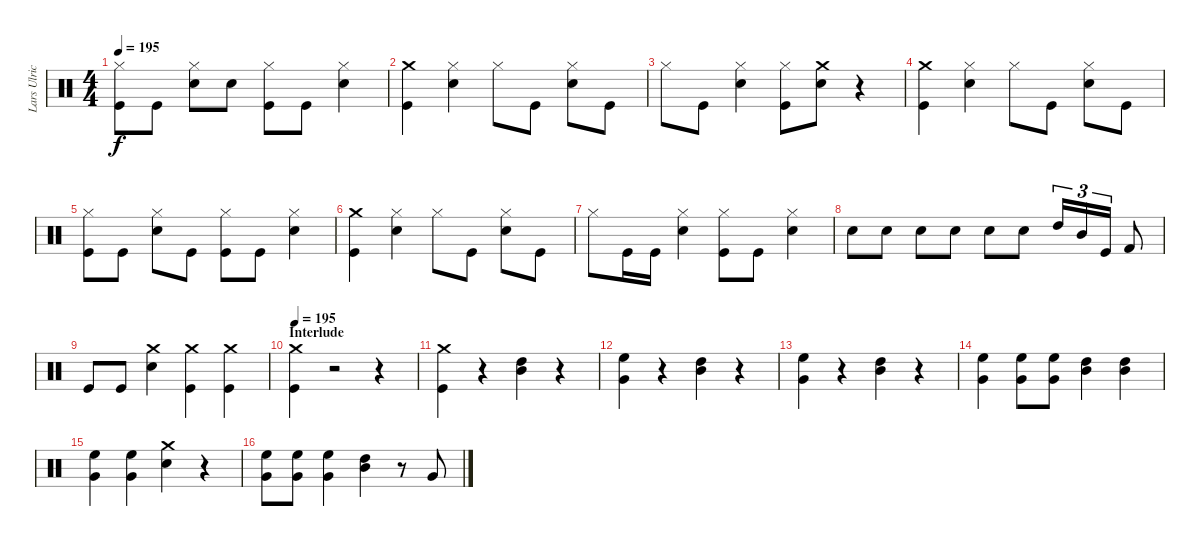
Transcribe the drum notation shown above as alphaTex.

\track ("Lars Ulrich (Drums)" "Lars Ulric") {instrument percussion}
\staff {score}
\articulation defaults
\ts (4 4)
\tempo 195
\clef neutral
\ks c
("Hi-Hat (closed)" "Kick (hit)").8{dy f} "Kick (hit)".8 ("Snare (hit) 2" "Hi-Hat (closed)").8 "Snare (hit) 2".8 ("Hi-Hat (closed)" "Kick (hit)").8 "Kick (hit)".8 ("Snare (hit) 2" "Hi-Hat (closed)").4 |
("Kick (hit)" "Crash medium (hit)").4 ("Hi-Hat (closed)" "Snare (hit) 2").4 "Hi-Hat (closed)".8 "Kick (hit)".8 ("Snare (hit) 2" "Hi-Hat (closed)").8 "Kick (hit)".8 |
"Hi-Hat (closed)".8 "Kick (hit)".8 ("Snare (hit) 2" "Hi-Hat (closed)").4 ("Kick (hit)" "Hi-Hat (closed)").8 ("Snare (hit) 2" "Crash medium (hit)").8 r.4 |
("Kick (hit)" "Crash medium (hit)").4 ("Hi-Hat (closed)" "Snare (hit) 2").4 "Hi-Hat (closed)".8 "Kick (hit)".8 ("Snare (hit) 2" "Hi-Hat (closed)").8 "Kick (hit)".8 |
("Kick (hit)" "Hi-Hat (closed)").8 "Kick (hit)".8 ("Snare (hit) 2" "Hi-Hat (closed)").8 "Kick (hit)".8 ("Kick (hit)" "Hi-Hat (closed)").8 "Kick (hit)".8 ("Snare (hit) 2" "Hi-Hat (closed)").4 |
("Kick (hit)" "Crash medium (hit)").4 ("Hi-Hat (closed)" "Snare (hit) 2").4 "Hi-Hat (closed)".8 "Kick (hit)".8 ("Snare (hit) 2" "Hi-Hat (closed)").8 "Kick (hit)".8 |
"Hi-Hat (closed)".8 "Kick (hit)".16 "Kick (hit)".16 ("Snare (hit) 2" "Hi-Hat (closed)").4 ("Kick (hit)" "Hi-Hat (closed)").8 "Kick (hit)".8 ("Snare (hit) 2" "Hi-Hat (closed)").4 |
"Snare (hit) 2".8 "Snare (hit) 2".8 "Snare (hit) 2".8 "Snare (hit) 2".8 "Snare (hit) 2".8 "Snare (hit) 2".8 "High Tom (hit)".16{tu (3 2)} "Mid Tom (hit)".16{tu (3 2)} "Kick (hit)".16{tu (3 2)} "Kick (hit) 2".8 |
"Kick (hit)".8 "Kick (hit)".8 ("Snare (hit) 2" "Crash medium (hit)").4 ("Kick (hit)" "Crash medium (hit)").4 ("Kick (hit)" "Crash medium (hit)").4 |
\section ("" "Interlude")
\tempo 195
("Crash medium (hit)" "Kick (hit)").4 r.2 r.4 |
("Kick (hit)" "Crash medium (hit)").4 r.4 ("High Tom (hit)" "Mid Tom (hit)").4 r.4 |
("Very Low Tom (hit)" "High Floor Tom (hit)").4 r.4 ("Mid Tom (hit)" "High Tom (hit)").4 r.4 |
("Very Low Tom (hit)" "High Floor Tom (hit)").4 r.4 ("Mid Tom (hit)" "High Tom (hit)").4 r.4 |
("High Floor Tom (hit)" "Very Low Tom (hit)").4 ("High Floor Tom (hit)" "Very Low Tom (hit)").8 ("High Floor Tom (hit)" "Very Low Tom (hit)").8 ("Mid Tom (hit)" "High Tom (hit)").4 ("Mid Tom (hit)" "High Tom (hit)").4 |
("Very Low Tom (hit)" "High Floor Tom (hit)").4 ("Very Low Tom (hit)" "High Floor Tom (hit)").4 ("Crash medium (hit)" "Snare (hit) 2").4 r.4 |
("Very Low Tom (hit)" "High Floor Tom (hit)").8 ("Very Low Tom (hit)" "High Floor Tom (hit)").8 ("Very Low Tom (hit)" "High Floor Tom (hit)").4 ("Mid Tom (hit)" "High Tom (hit)").4 r.8 "Very Low Tom (hit)".8
